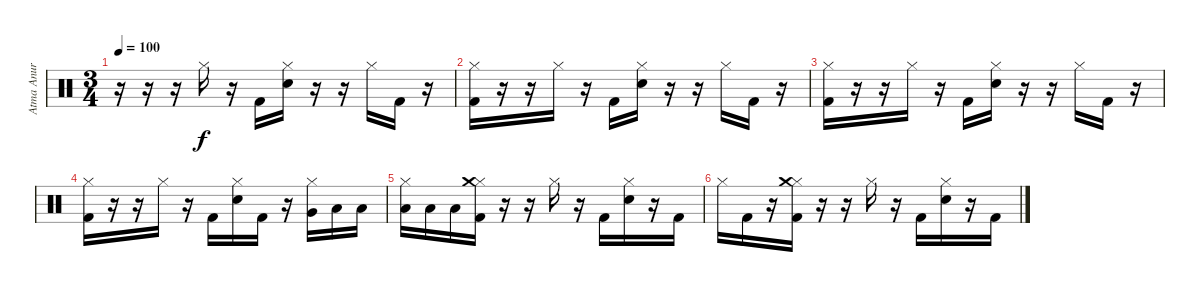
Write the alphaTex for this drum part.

\track ("Atma Anur" "Atma Anur") {instrument percussion}
\staff {score}
\articulation defaults
\ts (3 4)
\tempo 100
\clef neutral
\ks c
r.16{dy f} r.16 r.16 "Hi-Hat (closed)".16 r.16 "Kick (hit) 2".16 ("Hi-Hat (closed)" "Snare (hit) 2").16 r.16 r.16 "Hi-Hat (closed)".16 "Kick (hit) 2".16 r.16 |
("Hi-Hat (closed)" "Kick (hit) 2").16 r.16 r.16 "Hi-Hat (closed)".16 r.16 "Kick (hit) 2".16 ("Hi-Hat (closed)" "Snare (hit) 2").16 r.16 r.16 "Hi-Hat (closed)".16 "Kick (hit) 2".16 r.16 |
("Hi-Hat (closed)" "Kick (hit) 2").16 r.16 r.16 "Hi-Hat (closed)".16 r.16 "Kick (hit) 2".16 ("Hi-Hat (closed)" "Snare (hit) 2").16 r.16 r.16 "Hi-Hat (closed)".16 "Kick (hit) 2".16 r.16 |
("Hi-Hat (closed)" "Kick (hit) 2").16 r.16 r.16 "Hi-Hat (closed)".16 r.16 "Kick (hit) 2".16 ("Hi-Hat (closed)" "Snare (hit) 2").16 "Kick (hit) 2".16 r.16 ("Hi-Hat (closed)" "Very Low Tom (hit)").16 "Low Floor Tom (hit)".16 "Low Floor Tom (hit)".16 |
("Hi-Hat (closed)" "Low Floor Tom (hit)").16 "Low Floor Tom (hit)".16 "Low Floor Tom (hit)".16 ("Hi-Hat (closed)" "Crash medium (hit)" "Kick (hit) 2").16 r.16 r.16 "Hi-Hat (closed)".16 r.16 "Kick (hit) 2".16 ("Hi-Hat (closed)" "Snare (hit) 2").16 r.16 "Kick (hit) 2".16 |
"Hi-Hat (closed)".16 "Kick (hit) 2".16 r.16 ("Hi-Hat (closed)" "Crash medium (hit)" "Kick (hit) 2").16 r.16 r.16 "Hi-Hat (closed)".16 r.16 "Kick (hit) 2".16 ("Hi-Hat (closed)" "Snare (hit) 2").16 r.16 "Kick (hit) 2".16
